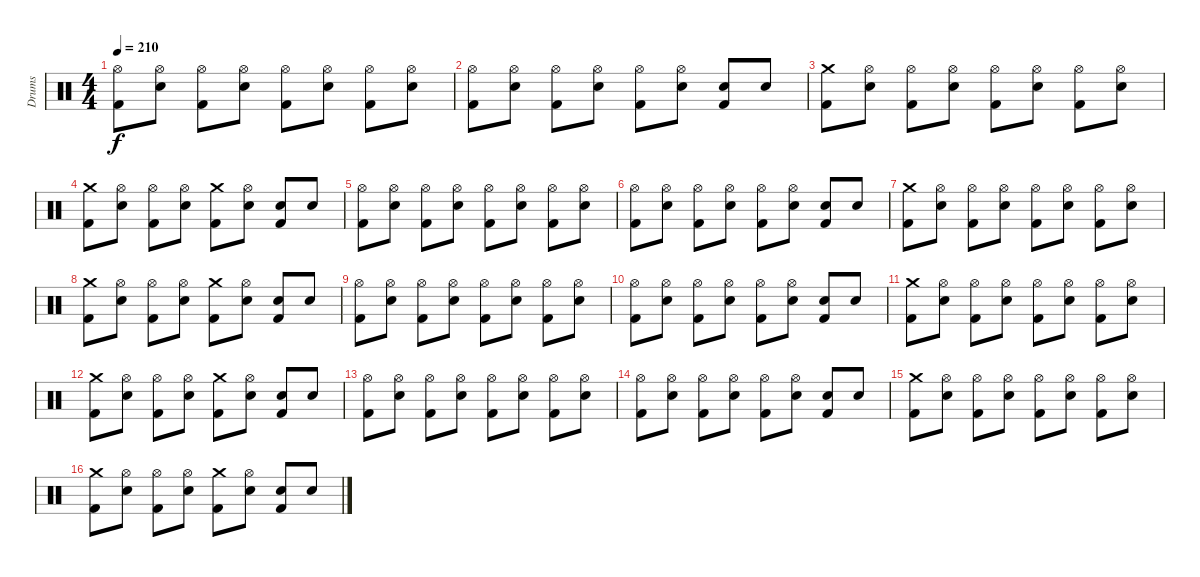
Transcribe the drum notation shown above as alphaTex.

\track ("Drums" "Drums") {instrument percussion}
\staff {score}
\articulation defaults
\ts (4 4)
\tempo 210
\clef neutral
\ks c
("Hi-Hat (open)" "Kick (hit) 2").8{dy f} ("Hi-Hat (open)" "Snare (hit) 2").8 ("Hi-Hat (open)" "Kick (hit) 2").8 ("Hi-Hat (open)" "Snare (hit) 2").8 ("Hi-Hat (open)" "Kick (hit) 2").8 ("Hi-Hat (open)" "Snare (hit) 2").8 ("Hi-Hat (open)" "Kick (hit) 2").8 ("Hi-Hat (open)" "Snare (hit) 2").8 |
("Hi-Hat (open)" "Kick (hit) 2").8 ("Hi-Hat (open)" "Snare (hit) 2").8 ("Hi-Hat (open)" "Kick (hit) 2").8 ("Hi-Hat (open)" "Snare (hit) 2").8 ("Hi-Hat (open)" "Kick (hit) 2").8 ("Hi-Hat (open)" "Snare (hit) 2").8 ("Snare (hit) 2" "Kick (hit) 2").8 "Snare (hit) 2".8 |
("Crash medium (hit)" "Kick (hit) 2").8 ("Hi-Hat (open)" "Snare (hit) 2").8 ("Hi-Hat (open)" "Kick (hit) 2").8 ("Hi-Hat (open)" "Snare (hit) 2").8 ("Hi-Hat (open)" "Kick (hit) 2").8 ("Hi-Hat (open)" "Snare (hit) 2").8 ("Hi-Hat (open)" "Kick (hit) 2").8 ("Hi-Hat (open)" "Snare (hit) 2").8 |
("Crash medium (hit)" "Kick (hit) 2").8 ("Hi-Hat (open)" "Snare (hit) 2").8 ("Hi-Hat (open)" "Kick (hit) 2").8 ("Hi-Hat (open)" "Snare (hit) 2").8 ("Crash medium (hit)" "Kick (hit) 2").8 ("Hi-Hat (open)" "Snare (hit) 2").8 ("Snare (hit) 2" "Kick (hit) 2").8 "Snare (hit) 2".8 |
("Hi-Hat (open)" "Kick (hit) 2").8 ("Hi-Hat (open)" "Snare (hit) 2").8 ("Hi-Hat (open)" "Kick (hit) 2").8 ("Hi-Hat (open)" "Snare (hit) 2").8 ("Hi-Hat (open)" "Kick (hit) 2").8 ("Hi-Hat (open)" "Snare (hit) 2").8 ("Hi-Hat (open)" "Kick (hit) 2").8 ("Hi-Hat (open)" "Snare (hit) 2").8 |
("Hi-Hat (open)" "Kick (hit) 2").8 ("Hi-Hat (open)" "Snare (hit) 2").8 ("Hi-Hat (open)" "Kick (hit) 2").8 ("Hi-Hat (open)" "Snare (hit) 2").8 ("Hi-Hat (open)" "Kick (hit) 2").8 ("Hi-Hat (open)" "Snare (hit) 2").8 ("Snare (hit) 2" "Kick (hit) 2").8 "Snare (hit) 2".8 |
("Crash medium (hit)" "Kick (hit) 2").8 ("Hi-Hat (open)" "Snare (hit) 2").8 ("Hi-Hat (open)" "Kick (hit) 2").8 ("Hi-Hat (open)" "Snare (hit) 2").8 ("Hi-Hat (open)" "Kick (hit) 2").8 ("Hi-Hat (open)" "Snare (hit) 2").8 ("Hi-Hat (open)" "Kick (hit) 2").8 ("Hi-Hat (open)" "Snare (hit) 2").8 |
("Crash medium (hit)" "Kick (hit) 2").8 ("Hi-Hat (open)" "Snare (hit) 2").8 ("Hi-Hat (open)" "Kick (hit) 2").8 ("Hi-Hat (open)" "Snare (hit) 2").8 ("Crash medium (hit)" "Kick (hit) 2").8 ("Hi-Hat (open)" "Snare (hit) 2").8 ("Snare (hit) 2" "Kick (hit) 2").8 "Snare (hit) 2".8 |
("Hi-Hat (open)" "Kick (hit) 2").8 ("Hi-Hat (open)" "Snare (hit) 2").8 ("Hi-Hat (open)" "Kick (hit) 2").8 ("Hi-Hat (open)" "Snare (hit) 2").8 ("Hi-Hat (open)" "Kick (hit) 2").8 ("Hi-Hat (open)" "Snare (hit) 2").8 ("Hi-Hat (open)" "Kick (hit) 2").8 ("Hi-Hat (open)" "Snare (hit) 2").8 |
("Hi-Hat (open)" "Kick (hit) 2").8 ("Hi-Hat (open)" "Snare (hit) 2").8 ("Hi-Hat (open)" "Kick (hit) 2").8 ("Hi-Hat (open)" "Snare (hit) 2").8 ("Hi-Hat (open)" "Kick (hit) 2").8 ("Hi-Hat (open)" "Snare (hit) 2").8 ("Snare (hit) 2" "Kick (hit) 2").8 "Snare (hit) 2".8 |
("Crash medium (hit)" "Kick (hit) 2").8 ("Hi-Hat (open)" "Snare (hit) 2").8 ("Hi-Hat (open)" "Kick (hit) 2").8 ("Hi-Hat (open)" "Snare (hit) 2").8 ("Hi-Hat (open)" "Kick (hit) 2").8 ("Hi-Hat (open)" "Snare (hit) 2").8 ("Hi-Hat (open)" "Kick (hit) 2").8 ("Hi-Hat (open)" "Snare (hit) 2").8 |
("Crash medium (hit)" "Kick (hit) 2").8 ("Hi-Hat (open)" "Snare (hit) 2").8 ("Hi-Hat (open)" "Kick (hit) 2").8 ("Hi-Hat (open)" "Snare (hit) 2").8 ("Crash medium (hit)" "Kick (hit) 2").8 ("Hi-Hat (open)" "Snare (hit) 2").8 ("Snare (hit) 2" "Kick (hit) 2").8 "Snare (hit) 2".8 |
("Hi-Hat (open)" "Kick (hit) 2").8 ("Hi-Hat (open)" "Snare (hit) 2").8 ("Hi-Hat (open)" "Kick (hit) 2").8 ("Hi-Hat (open)" "Snare (hit) 2").8 ("Hi-Hat (open)" "Kick (hit) 2").8 ("Hi-Hat (open)" "Snare (hit) 2").8 ("Hi-Hat (open)" "Kick (hit) 2").8 ("Hi-Hat (open)" "Snare (hit) 2").8 |
("Hi-Hat (open)" "Kick (hit) 2").8 ("Hi-Hat (open)" "Snare (hit) 2").8 ("Hi-Hat (open)" "Kick (hit) 2").8 ("Hi-Hat (open)" "Snare (hit) 2").8 ("Hi-Hat (open)" "Kick (hit) 2").8 ("Hi-Hat (open)" "Snare (hit) 2").8 ("Snare (hit) 2" "Kick (hit) 2").8 "Snare (hit) 2".8 |
("Crash medium (hit)" "Kick (hit) 2").8 ("Hi-Hat (open)" "Snare (hit) 2").8 ("Hi-Hat (open)" "Kick (hit) 2").8 ("Hi-Hat (open)" "Snare (hit) 2").8 ("Hi-Hat (open)" "Kick (hit) 2").8 ("Hi-Hat (open)" "Snare (hit) 2").8 ("Hi-Hat (open)" "Kick (hit) 2").8 ("Hi-Hat (open)" "Snare (hit) 2").8 |
("Crash medium (hit)" "Kick (hit) 2").8 ("Hi-Hat (open)" "Snare (hit) 2").8 ("Hi-Hat (open)" "Kick (hit) 2").8 ("Hi-Hat (open)" "Snare (hit) 2").8 ("Crash medium (hit)" "Kick (hit) 2").8 ("Hi-Hat (open)" "Snare (hit) 2").8 ("Snare (hit) 2" "Kick (hit) 2").8 "Snare (hit) 2".8
